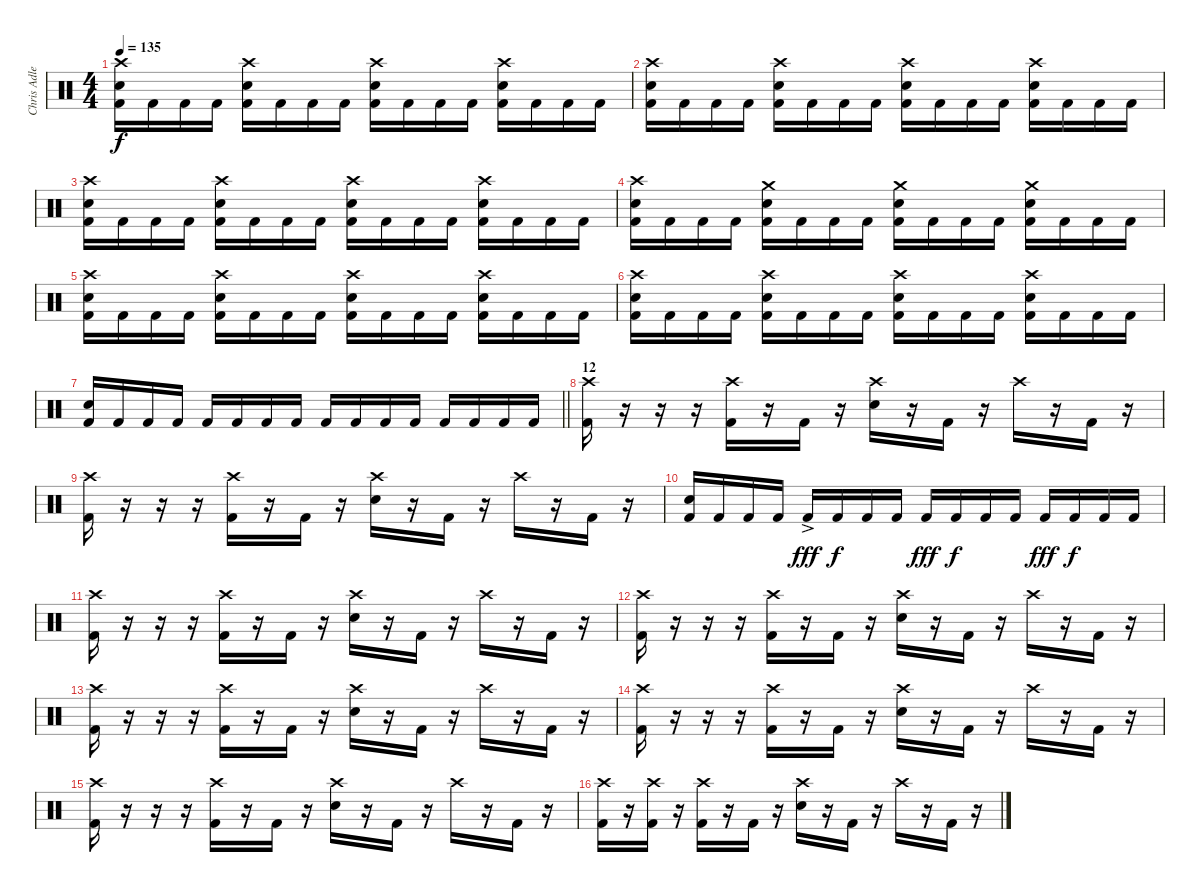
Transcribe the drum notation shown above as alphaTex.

\track ("Chris Adler" "Chris Adle") {instrument percussion}
\staff {score}
\articulation defaults
\ts (4 4)
\tempo 135
\clef neutral
\ks c
("Crash high (hit)" "Electric Snare (hit)" "Kick (hit) 2").16{dy f} "Kick (hit) 2".16 "Kick (hit) 2".16 "Kick (hit) 2".16 ("Crash high (hit)" "Electric Snare (hit)" "Kick (hit) 2").16 "Kick (hit) 2".16 "Kick (hit) 2".16 "Kick (hit) 2".16 ("Crash high (hit)" "Electric Snare (hit)" "Kick (hit) 2").16 "Kick (hit) 2".16 "Kick (hit) 2".16 "Kick (hit) 2".16 ("Crash high (hit)" "Electric Snare (hit)" "Kick (hit) 2").16 "Kick (hit) 2".16 "Kick (hit) 2".16 "Kick (hit) 2".16 |
("Crash high (hit)" "Electric Snare (hit)" "Kick (hit) 2").16 "Kick (hit) 2".16 "Kick (hit) 2".16 "Kick (hit) 2".16 ("Crash high (hit)" "Electric Snare (hit)" "Kick (hit) 2").16 "Kick (hit) 2".16 "Kick (hit) 2".16 "Kick (hit) 2".16 ("Crash high (hit)" "Electric Snare (hit)" "Kick (hit) 2").16 "Kick (hit) 2".16 "Kick (hit) 2".16 "Kick (hit) 2".16 ("Crash high (hit)" "Electric Snare (hit)" "Kick (hit) 2").16 "Kick (hit) 2".16 "Kick (hit) 2".16 "Kick (hit) 2".16 |
("Crash high (hit)" "Electric Snare (hit)" "Kick (hit) 2").16 "Kick (hit) 2".16 "Kick (hit) 2".16 "Kick (hit) 2".16 ("Crash high (hit)" "Electric Snare (hit)" "Kick (hit) 2").16 "Kick (hit) 2".16 "Kick (hit) 2".16 "Kick (hit) 2".16 ("Crash high (hit)" "Electric Snare (hit)" "Kick (hit) 2").16 "Kick (hit) 2".16 "Kick (hit) 2".16 "Kick (hit) 2".16 ("Crash high (hit)" "Electric Snare (hit)" "Kick (hit) 2").16 "Kick (hit) 2".16 "Kick (hit) 2".16 "Kick (hit) 2".16 |
("Crash high (hit)" "Electric Snare (hit)" "Kick (hit) 2").16 "Kick (hit) 2".16 "Kick (hit) 2".16 "Kick (hit) 2".16 ("Crash medium (hit)" "Electric Snare (hit)" "Kick (hit) 2").16 "Kick (hit) 2".16 "Kick (hit) 2".16 "Kick (hit) 2".16 ("Crash medium (hit)" "Electric Snare (hit)" "Kick (hit) 2").16 "Kick (hit) 2".16 "Kick (hit) 2".16 "Kick (hit) 2".16 ("Crash medium (hit)" "Electric Snare (hit)" "Kick (hit) 2").16 "Kick (hit) 2".16 "Kick (hit) 2".16 "Kick (hit) 2".16 |
("Crash high (hit)" "Electric Snare (hit)" "Kick (hit) 2").16 "Kick (hit) 2".16 "Kick (hit) 2".16 "Kick (hit) 2".16 ("Crash high (hit)" "Electric Snare (hit)" "Kick (hit) 2").16 "Kick (hit) 2".16 "Kick (hit) 2".16 "Kick (hit) 2".16 ("Crash high (hit)" "Electric Snare (hit)" "Kick (hit) 2").16 "Kick (hit) 2".16 "Kick (hit) 2".16 "Kick (hit) 2".16 ("Crash high (hit)" "Electric Snare (hit)" "Kick (hit) 2").16 "Kick (hit) 2".16 "Kick (hit) 2".16 "Kick (hit) 2".16 |
("Crash high (hit)" "Electric Snare (hit)" "Kick (hit) 2").16 "Kick (hit) 2".16 "Kick (hit) 2".16 "Kick (hit) 2".16 ("Crash high (hit)" "Electric Snare (hit)" "Kick (hit) 2").16 "Kick (hit) 2".16 "Kick (hit) 2".16 "Kick (hit) 2".16 ("Crash high (hit)" "Electric Snare (hit)" "Kick (hit) 2").16 "Kick (hit) 2".16 "Kick (hit) 2".16 "Kick (hit) 2".16 ("Crash high (hit)" "Electric Snare (hit)" "Kick (hit) 2").16 "Kick (hit) 2".16 "Kick (hit) 2".16 "Kick (hit) 2".16 |
\barLineRight lightlight
("Electric Snare (hit)" "Kick (hit) 2").16 "Kick (hit) 2".16 "Kick (hit) 2".16 "Kick (hit) 2".16 "Kick (hit) 2".16 "Kick (hit) 2".16 "Kick (hit) 2".16 "Kick (hit) 2".16 "Kick (hit) 2".16 "Kick (hit) 2".16 "Kick (hit) 2".16 "Kick (hit) 2".16 "Kick (hit) 2".16 "Kick (hit) 2".16 "Kick (hit) 2".16 "Kick (hit) 2".16 |
\section ("" "12")
("Crash high (hit)" "Kick (hit) 2").16 r.16 r.16 r.16 ("Crash high (hit)" "Kick (hit) 2").16 r.16 "Kick (hit) 2".16 r.16 ("Crash high (hit)" "Electric Snare (hit)").16 r.16 "Kick (hit) 2".16 r.16 "Crash high (hit)".16 r.16 "Kick (hit) 2".16 r.16 |
("Crash high (hit)" "Kick (hit) 2").16 r.16 r.16 r.16 ("Crash high (hit)" "Kick (hit) 2").16 r.16 "Kick (hit) 2".16 r.16 ("Crash high (hit)" "Electric Snare (hit)").16 r.16 "Kick (hit) 2".16 r.16 "Crash high (hit)".16 r.16 "Kick (hit) 2".16 r.16 |
("Electric Snare (hit)" "Kick (hit) 2").16 "Kick (hit) 2".16 "Kick (hit) 2".16 "Kick (hit) 2".16 "Kick (hit) 2"{ac}.16{dy fff} "Kick (hit) 2".16{dy f} "Kick (hit) 2".16 "Kick (hit) 2".16 "Kick (hit) 2".16{dy fff} "Kick (hit) 2".16{dy f} "Kick (hit) 2".16 "Kick (hit) 2".16 "Kick (hit) 2".16{dy fff} "Kick (hit) 2".16{dy f} "Kick (hit) 2".16 "Kick (hit) 2".16 |
("Crash high (hit)" "Kick (hit) 2").16 r.16 r.16 r.16 ("Crash high (hit)" "Kick (hit) 2").16 r.16 "Kick (hit) 2".16 r.16 ("Crash high (hit)" "Electric Snare (hit)").16 r.16 "Kick (hit) 2".16 r.16 "Crash high (hit)".16 r.16 "Kick (hit) 2".16 r.16 |
("Crash high (hit)" "Kick (hit) 2").16 r.16 r.16 r.16 ("Crash high (hit)" "Kick (hit) 2").16 r.16 "Kick (hit) 2".16 r.16 ("Crash high (hit)" "Electric Snare (hit)").16 r.16 "Kick (hit) 2".16 r.16 "Crash high (hit)".16 r.16 "Kick (hit) 2".16 r.16 |
("Crash high (hit)" "Kick (hit) 2").16 r.16 r.16 r.16 ("Crash high (hit)" "Kick (hit) 2").16 r.16 "Kick (hit) 2".16 r.16 ("Crash high (hit)" "Electric Snare (hit)").16 r.16 "Kick (hit) 2".16 r.16 "Crash high (hit)".16 r.16 "Kick (hit) 2".16 r.16 |
("Crash high (hit)" "Kick (hit) 2").16 r.16 r.16 r.16 ("Crash high (hit)" "Kick (hit) 2").16 r.16 "Kick (hit) 2".16 r.16 ("Crash high (hit)" "Electric Snare (hit)").16 r.16 "Kick (hit) 2".16 r.16 "Crash high (hit)".16 r.16 "Kick (hit) 2".16 r.16 |
("Crash high (hit)" "Kick (hit) 2").16 r.16 r.16 r.16 ("Crash high (hit)" "Kick (hit) 2").16 r.16 "Kick (hit) 2".16 r.16 ("Crash high (hit)" "Electric Snare (hit)").16 r.16 "Kick (hit) 2".16 r.16 "Crash high (hit)".16 r.16 "Kick (hit) 2".16 r.16 |
("Crash high (hit)" "Kick (hit) 2").16 r.16 ("Crash high (hit)" "Kick (hit) 2").16 r.16 ("Crash high (hit)" "Kick (hit) 2").16 r.16 "Kick (hit) 2".16 r.16 ("Crash high (hit)" "Electric Snare (hit)").16 r.16 "Kick (hit) 2".16 r.16 "Crash high (hit)".16 r.16 "Kick (hit) 2".16 r.16
